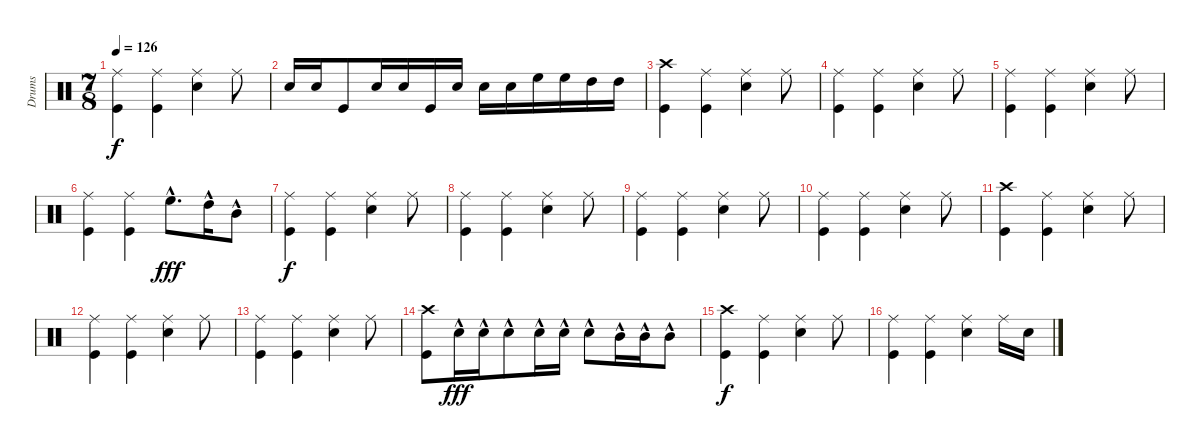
\track ("Drums" "Drums") {instrument percussion}
\staff {score}
\articulation defaults
\ts (7 8)
\tempo 126
\clef neutral
\ks c
("Ride (middle)" "Kick (hit)").4{dy f} ("Ride (middle)" "Kick (hit)").4 ("Ride (middle)" "Snare (hit) 2").4 "Ride (middle)".8 |
"Snare (hit) 2".16 "Snare (hit) 2".16 "Kick (hit)".8 "Snare (hit) 2".16 "Snare (hit) 2".16 "Kick (hit)".16 "Snare (hit) 2".16 "Snare (hit) 2".16 "Snare (hit) 2".16 "High Floor Tom (hit)".16 "High Floor Tom (hit)".16 "High Tom (hit)".16 "High Tom (hit)".16 |
("Crash high (hit)" "Kick (hit)").4 ("Ride (middle)" "Kick (hit)").4 ("Ride (middle)" "Snare (hit) 2").4 "Ride (middle)".8 |
("Ride (middle)" "Kick (hit)").4 ("Ride (middle)" "Kick (hit)").4 ("Ride (middle)" "Snare (hit) 2").4 "Ride (middle)".8 |
("Ride (middle)" "Kick (hit)").4 ("Ride (middle)" "Kick (hit)").4 ("Ride (middle)" "Snare (hit) 2").4 "Ride (middle)".8 |
("Ride (middle)" "Kick (hit)").4 ("Ride (middle)" "Kick (hit)").4 "High Floor Tom (hit)"{hac}.8{d dy fff} "High Tom (hit)"{hac}.16 "Mid Tom (hit)"{hac}.8 |
("Ride (middle)" "Kick (hit)").4{dy f} ("Ride (middle)" "Kick (hit)").4 ("Ride (middle)" "Snare (hit) 2").4 "Ride (middle)".8 |
("Ride (middle)" "Kick (hit)").4 ("Ride (middle)" "Kick (hit)").4 ("Ride (middle)" "Snare (hit) 2").4 "Ride (middle)".8 |
("Ride (middle)" "Kick (hit)").4 ("Ride (middle)" "Kick (hit)").4 ("Ride (middle)" "Snare (hit) 2").4 "Ride (middle)".8 |
("Ride (middle)" "Kick (hit)").4 ("Ride (middle)" "Kick (hit)").4 ("Ride (middle)" "Snare (hit) 2").4 "Ride (middle)".8 |
("Crash high (hit)" "Kick (hit)").4 ("Ride (middle)" "Kick (hit)").4 ("Ride (middle)" "Snare (hit) 2").4 "Ride (middle)".8 |
("Ride (middle)" "Kick (hit)").4 ("Ride (middle)" "Kick (hit)").4 ("Ride (middle)" "Snare (hit) 2").4 "Ride (middle)".8 |
("Ride (middle)" "Kick (hit)").4 ("Ride (middle)" "Kick (hit)").4 ("Ride (middle)" "Snare (hit) 2").4 "Ride (middle)".8 |
("Crash high (hit)" "Kick (hit)").8 "Snare (hit) 2"{hac}.16{dy fff} "Snare (hit) 2"{hac}.16 "Snare (hit) 2"{hac}.8 "Snare (hit) 2"{hac}.16 "Snare (hit) 2"{hac}.16 "Snare (hit) 2"{hac}.8 "Mid Tom (hit)"{hac}.16 "Mid Tom (hit)"{hac}.16 "Mid Tom (hit)"{hac}.8 |
("Crash high (hit)" "Kick (hit)").4{dy f} ("Ride (middle)" "Kick (hit)").4 ("Ride (middle)" "Snare (hit) 2").4 "Ride (middle)".8 |
("Ride (middle)" "Kick (hit)").4 ("Ride (middle)" "Kick (hit)").4 ("Ride (middle)" "Snare (hit) 2").4 "Ride (middle)".16 "Snare (hit) 2".16
